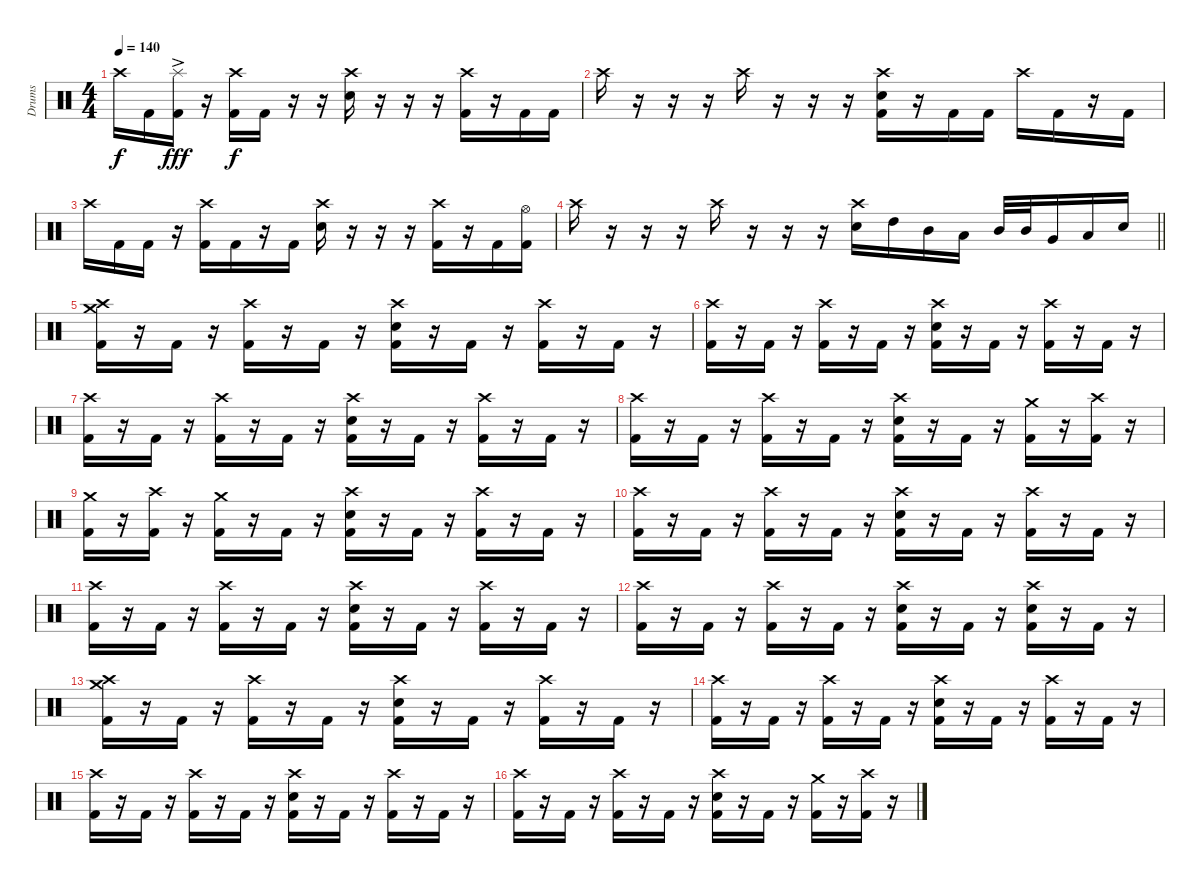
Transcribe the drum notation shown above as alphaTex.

\track ("Drums" "Drums") {instrument percussion}
\staff {score}
\articulation defaults
\ts (4 4)
\tempo 140
\clef neutral
\ks c "Crash high (hit)".16{dy f} "Kick (hit) 2".16
("Splash (hit)"{ac} "Kick (hit) 2").16{dy fff} r.16 ("Crash high (hit)" "Kick (hit) 2").16{dy f} "Kick (hit) 2".16 r.16 r.16 ("Crash high (hit)" "Electric Snare (hit)").16 r.16 r.16 r.16 ("Crash high (hit)" "Kick (hit) 2").16 r.16 "Kick (hit) 2".16 "Kick (hit) 2".16 |
"Crash high (hit)".16 r.16 r.16 r.16 "Crash high (hit)".16 r.16 r.16 r.16 ("Crash high (hit)" "Electric Snare (hit)" "Kick (hit) 2").16 r.16 "Kick (hit) 2".16 "Kick (hit) 2".16 "Crash high (hit)".16 "Kick (hit) 2".16 r.16 "Kick (hit) 2".16 |
"Crash high (hit)".16 "Kick (hit) 2".16 "Kick (hit) 2".16 r.16 ("Crash high (hit)" "Kick (hit) 2").16 "Kick (hit) 2".16 r.16 "Kick (hit) 2".16 ("Crash high (hit)" "Electric Snare (hit)").16 r.16 r.16 r.16 ("Crash high (hit)" "Kick (hit) 2").16 r.16 "Kick (hit) 2".16 ("Hi-Hat (open)" "Kick (hit) 2").16 |
\barLineRight lightlight "Crash high (hit)".16
r.16 r.16 r.16 "Crash high (hit)".16 r.16 r.16 r.16 ("Crash high (hit)" "Electric Snare (hit)").16 "High Tom (hit)".16 "Mid Tom (hit)".16 "Low Tom (hit)".16 "Mid Tom (hit)".32 "Mid Tom (hit)".32 "Very Low Tom (hit)".16 "Low Floor Tom (hit)".16 "Electric Snare (hit)".16 |
\section ("" "")
("Crash medium (hit)" "Crash high (hit)" "Kick (hit) 2").16 r.16 "Kick (hit) 2".16 r.16 ("Crash high (hit)" "Kick (hit) 2").16 r.16 "Kick (hit) 2".16 r.16 ("Crash high (hit)" "Electric Snare (hit)" "Kick (hit) 2").16 r.16 "Kick (hit) 2".16 r.16 ("Crash high (hit)" "Kick (hit) 2").16 r.16 "Kick (hit) 2".16 r.16 |
("Crash high (hit)" "Kick (hit) 2").16 r.16 "Kick (hit) 2".16 r.16 ("Crash high (hit)" "Kick (hit) 2").16 r.16 "Kick (hit) 2".16 r.16 ("Crash high (hit)" "Electric Snare (hit)" "Kick (hit) 2").16 r.16 "Kick (hit) 2".16 r.16 ("Crash high (hit)" "Kick (hit) 2").16 r.16 "Kick (hit) 2".16 r.16 |
("Crash high (hit)" "Kick (hit) 2").16 r.16 "Kick (hit) 2".16 r.16 ("Crash high (hit)" "Kick (hit) 2").16 r.16 "Kick (hit) 2".16 r.16 ("Crash high (hit)" "Electric Snare (hit)" "Kick (hit) 2").16 r.16 "Kick (hit) 2".16 r.16 ("Crash high (hit)" "Kick (hit) 2").16 r.16 "Kick (hit) 2".16 r.16 |
("Crash high (hit)" "Kick (hit) 2").16 r.16 "Kick (hit) 2".16 r.16 ("Crash high (hit)" "Kick (hit) 2").16 r.16 "Kick (hit) 2".16 r.16 ("Crash high (hit)" "Electric Snare (hit)" "Kick (hit) 2").16 r.16 "Kick (hit) 2".16 r.16 ("Crash medium (hit)" "Kick (hit) 2").16 r.16 ("Crash high (hit)" "Kick (hit) 2").16 r.16 |
("Crash medium (hit)" "Kick (hit) 2").16 r.16 ("Crash high (hit)" "Kick (hit) 2").16 r.16 ("Crash medium (hit)" "Kick (hit) 2").16 r.16 "Kick (hit) 2".16 r.16 ("Crash high (hit)" "Electric Snare (hit)" "Kick (hit) 2").16 r.16 "Kick (hit) 2".16 r.16 ("Crash high (hit)" "Kick (hit) 2").16 r.16 "Kick (hit) 2".16 r.16 |
("Crash high (hit)" "Kick (hit) 2").16 r.16 "Kick (hit) 2".16 r.16 ("Crash high (hit)" "Kick (hit) 2").16 r.16 "Kick (hit) 2".16 r.16 ("Crash high (hit)" "Electric Snare (hit)" "Kick (hit) 2").16 r.16 "Kick (hit) 2".16 r.16 ("Crash high (hit)" "Kick (hit) 2").16 r.16 "Kick (hit) 2".16 r.16 |
("Crash high (hit)" "Kick (hit) 2").16 r.16 "Kick (hit) 2".16 r.16 ("Crash high (hit)" "Kick (hit) 2").16 r.16 "Kick (hit) 2".16 r.16 ("Crash high (hit)" "Electric Snare (hit)" "Kick (hit) 2").16 r.16 "Kick (hit) 2".16 r.16 ("Crash high (hit)" "Kick (hit) 2").16 r.16 "Kick (hit) 2".16 r.16 |
("Crash high (hit)" "Kick (hit) 2").16 r.16 "Kick (hit) 2".16 r.16 ("Crash high (hit)" "Kick (hit) 2").16 r.16 "Kick (hit) 2".16 r.16 ("Crash high (hit)" "Electric Snare (hit)" "Kick (hit) 2").16 r.16 "Kick (hit) 2".16 r.16 ("Crash high (hit)" "Electric Snare (hit)" "Kick (hit) 2").16 r.16 "Kick (hit) 2".16 r.16 |
("Crash medium (hit)" "Crash high (hit)" "Kick (hit) 2").16 r.16 "Kick (hit) 2".16 r.16 ("Crash high (hit)" "Kick (hit) 2").16 r.16 "Kick (hit) 2".16 r.16 ("Crash high (hit)" "Electric Snare (hit)" "Kick (hit) 2").16 r.16 "Kick (hit) 2".16 r.16 ("Crash high (hit)" "Kick (hit) 2").16 r.16 "Kick (hit) 2".16 r.16 |
("Crash high (hit)" "Kick (hit) 2").16 r.16 "Kick (hit) 2".16 r.16 ("Crash high (hit)" "Kick (hit) 2").16 r.16 "Kick (hit) 2".16 r.16 ("Crash high (hit)" "Electric Snare (hit)" "Kick (hit) 2").16 r.16 "Kick (hit) 2".16 r.16 ("Crash high (hit)" "Kick (hit) 2").16 r.16 "Kick (hit) 2".16 r.16 |
("Crash high (hit)" "Kick (hit) 2").16 r.16 "Kick (hit) 2".16 r.16 ("Crash high (hit)" "Kick (hit) 2").16 r.16 "Kick (hit) 2".16 r.16 ("Crash high (hit)" "Electric Snare (hit)" "Kick (hit) 2").16 r.16 "Kick (hit) 2".16 r.16 ("Crash high (hit)" "Kick (hit) 2").16 r.16 "Kick (hit) 2".16 r.16 |
("Crash high (hit)" "Kick (hit) 2").16 r.16 "Kick (hit) 2".16 r.16 ("Crash high (hit)" "Kick (hit) 2").16 r.16 "Kick (hit) 2".16 r.16 ("Crash high (hit)" "Electric Snare (hit)" "Kick (hit) 2").16 r.16 "Kick (hit) 2".16 r.16 ("Crash medium (hit)" "Kick (hit) 2").16 r.16 ("Crash high (hit)" "Kick (hit) 2").16 r.16
